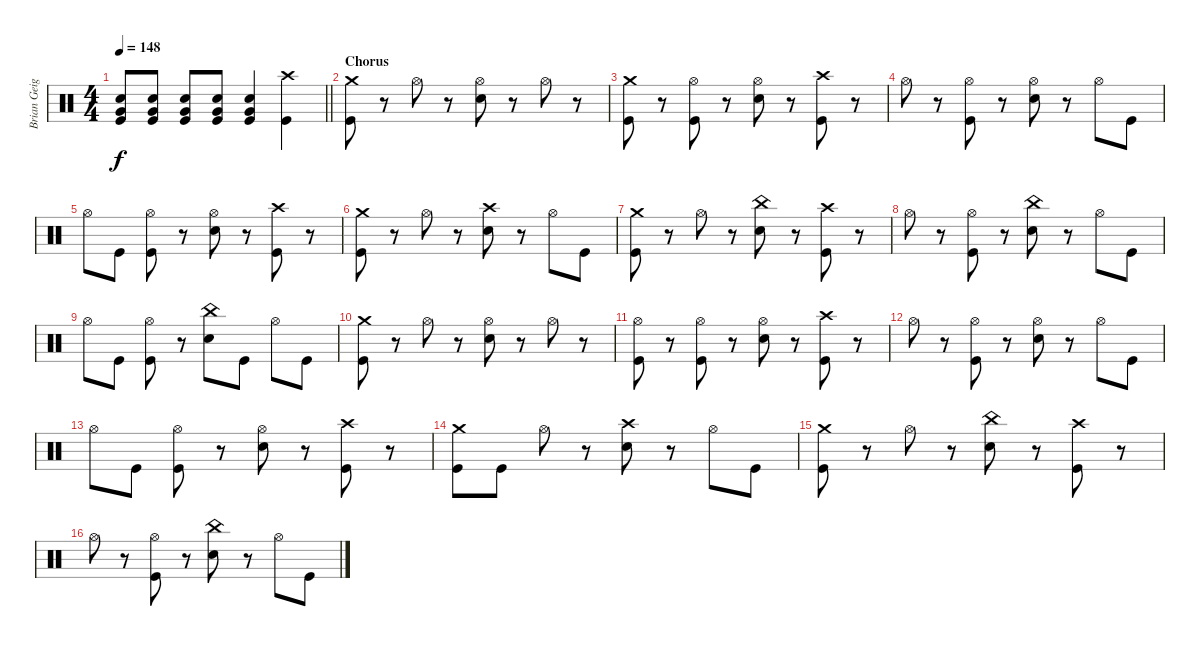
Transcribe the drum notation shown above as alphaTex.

\track ("Brian Geiger" "Brian Geig") {instrument percussion}
\staff {score}
\articulation defaults
\ts (4 4)
\tempo 148
\clef neutral
\barLineRight lightlight
\ks c
("Snare (hit) 2" "Very Low Tom (hit)" "Kick (hit)").8{dy f} ("Snare (hit) 2" "Very Low Tom (hit)" "Kick (hit)").8 ("Snare (hit) 2" "Very Low Tom (hit)" "Kick (hit)").8 ("Snare (hit) 2" "Very Low Tom (hit)" "Kick (hit)").8 ("Snare (hit) 2" "Very Low Tom (hit)" "Kick (hit)").4 ("Crash high (hit)" "Kick (hit)").4 |
\section ("" "Chorus")
("Crash medium (hit)" "Kick (hit)").8 r.8 "Hi-Hat (open)".8 r.8 ("Hi-Hat (open)" "Snare (hit) 2").8 r.8 "Hi-Hat (open)".8 r.8 |
("Crash medium (hit)" "Kick (hit)").8 r.8 ("Hi-Hat (open)" "Kick (hit)").8 r.8 ("Hi-Hat (open)" "Snare (hit) 2").8 r.8 ("Crash high (hit)" "Kick (hit)").8 r.8 |
"Hi-Hat (open)".8 r.8 ("Hi-Hat (open)" "Kick (hit)").8 r.8 ("Hi-Hat (open)" "Snare (hit) 2").8 r.8 "Hi-Hat (open)".8 "Kick (hit)".8 |
"Hi-Hat (open)".8 "Kick (hit)".8 ("Hi-Hat (open)" "Kick (hit)").8 r.8 ("Hi-Hat (open)" "Snare (hit) 2").8 r.8 ("Crash high (hit)" "Kick (hit)").8 r.8 |
("Crash medium (hit)" "Kick (hit)").8 r.8 "Hi-Hat (open)".8 r.8 ("Crash high (hit)" "Snare (hit) 2").8 r.8 "Hi-Hat (open)".8 "Kick (hit)".8 |
("Crash medium (hit)" "Kick (hit)").8 r.8 "Hi-Hat (open)".8 r.8 ("China (hit)" "Snare (hit) 2").8 r.8 ("Crash high (hit)" "Kick (hit)").8 r.8 |
"Hi-Hat (open)".8 r.8 ("Hi-Hat (open)" "Kick (hit)").8 r.8 ("China (hit)" "Snare (hit) 2").8 r.8 "Hi-Hat (open)".8 "Kick (hit)".8 |
"Hi-Hat (open)".8 "Kick (hit)".8 ("Hi-Hat (open)" "Kick (hit)").8 r.8 ("China (hit)" "Snare (hit) 2").8 "Kick (hit)".8 "Hi-Hat (open)".8 "Kick (hit)".8 |
("Crash medium (hit)" "Kick (hit)").8 r.8 "Hi-Hat (open)".8 r.8 ("Hi-Hat (open)" "Snare (hit) 2").8 r.8 "Hi-Hat (open)".8 r.8 |
("Hi-Hat (open)" "Kick (hit)").8 r.8 ("Hi-Hat (open)" "Kick (hit)").8 r.8 ("Hi-Hat (open)" "Snare (hit) 2").8 r.8 ("Crash high (hit)" "Kick (hit)").8 r.8 |
"Hi-Hat (open)".8 r.8 ("Hi-Hat (open)" "Kick (hit)").8 r.8 ("Hi-Hat (open)" "Snare (hit) 2").8 r.8 "Hi-Hat (open)".8 "Kick (hit)".8 |
"Hi-Hat (open)".8 "Kick (hit)".8 ("Hi-Hat (open)" "Kick (hit)").8 r.8 ("Hi-Hat (open)" "Snare (hit) 2").8 r.8 ("Crash high (hit)" "Kick (hit)").8 r.8 |
("Crash medium (hit)" "Kick (hit)").8 "Kick (hit)".8 "Hi-Hat (open)".8 r.8 ("Crash high (hit)" "Snare (hit) 2").8 r.8 "Hi-Hat (open)".8 "Kick (hit)".8 |
("Crash medium (hit)" "Kick (hit)").8 r.8 "Hi-Hat (open)".8 r.8 ("China (hit)" "Snare (hit) 2").8 r.8 ("Crash high (hit)" "Kick (hit)").8 r.8 |
"Hi-Hat (open)".8 r.8 ("Hi-Hat (open)" "Kick (hit)").8 r.8 ("China (hit)" "Snare (hit) 2").8 r.8 "Hi-Hat (open)".8 "Kick (hit)".8
